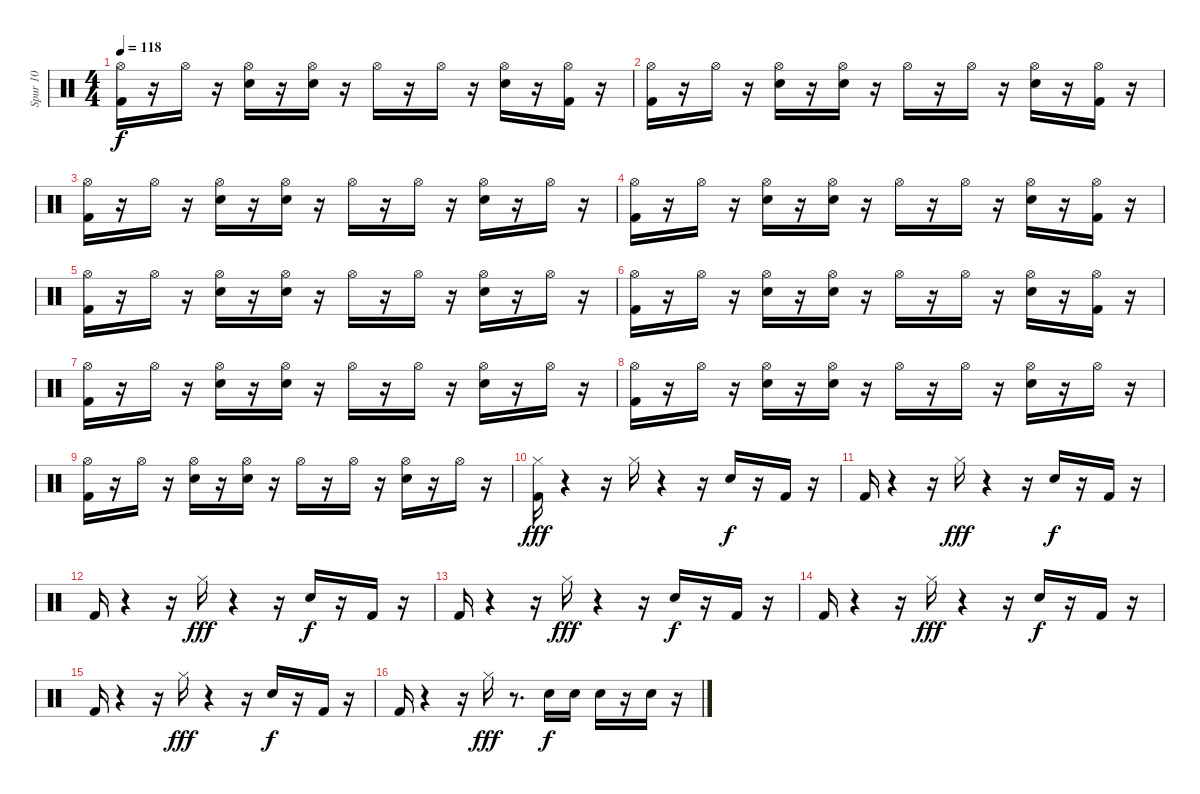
\track ("Spur 10" "Spur 10") {instrument percussion}
\staff {score}
\articulation defaults
\ts (4 4)
\tempo 118
\clef neutral
\ks c
("Kick (hit) 2" "Hi-Hat (open)").16{dy f} r.16 "Hi-Hat (open)".16 r.16 ("Snare (hit) 2" "Hi-Hat (open)").16 r.16 ("Snare (hit) 2" "Hi-Hat (open)").16 r.16 "Hi-Hat (open)".16 r.16 "Hi-Hat (open)".16 r.16 ("Snare (hit) 2" "Hi-Hat (open)").16 r.16 ("Hi-Hat (open)" "Kick (hit) 2").16 r.16 |
("Kick (hit) 2" "Hi-Hat (open)").16 r.16 "Hi-Hat (open)".16 r.16 ("Snare (hit) 2" "Hi-Hat (open)").16 r.16 ("Snare (hit) 2" "Hi-Hat (open)").16 r.16 "Hi-Hat (open)".16 r.16 "Hi-Hat (open)".16 r.16 ("Snare (hit) 2" "Hi-Hat (open)").16 r.16 ("Kick (hit) 2" "Hi-Hat (open)").16 r.16 |
("Kick (hit) 2" "Hi-Hat (open)").16 r.16 "Hi-Hat (open)".16 r.16 ("Snare (hit) 2" "Hi-Hat (open)").16 r.16 ("Snare (hit) 2" "Hi-Hat (open)").16 r.16 "Hi-Hat (open)".16 r.16 "Hi-Hat (open)".16 r.16 ("Snare (hit) 2" "Hi-Hat (open)").16 r.16 "Hi-Hat (open)".16 r.16 |
("Kick (hit) 2" "Hi-Hat (open)").16 r.16 "Hi-Hat (open)".16 r.16 ("Snare (hit) 2" "Hi-Hat (open)").16 r.16 ("Snare (hit) 2" "Hi-Hat (open)").16 r.16 "Hi-Hat (open)".16 r.16 "Hi-Hat (open)".16 r.16 ("Snare (hit) 2" "Hi-Hat (open)").16 r.16 ("Kick (hit) 2" "Hi-Hat (open)").16 r.16 |
("Kick (hit) 2" "Hi-Hat (open)").16 r.16 "Hi-Hat (open)".16 r.16 ("Snare (hit) 2" "Hi-Hat (open)").16 r.16 ("Snare (hit) 2" "Hi-Hat (open)").16 r.16 "Hi-Hat (open)".16 r.16 "Hi-Hat (open)".16 r.16 ("Snare (hit) 2" "Hi-Hat (open)").16 r.16 "Hi-Hat (open)".16 r.16 |
("Kick (hit) 2" "Hi-Hat (open)").16 r.16 "Hi-Hat (open)".16 r.16 ("Snare (hit) 2" "Hi-Hat (open)").16 r.16 ("Snare (hit) 2" "Hi-Hat (open)").16 r.16 "Hi-Hat (open)".16 r.16 "Hi-Hat (open)".16 r.16 ("Snare (hit) 2" "Hi-Hat (open)").16 r.16 ("Kick (hit) 2" "Hi-Hat (open)").16 r.16 |
("Kick (hit) 2" "Hi-Hat (open)").16 r.16 "Hi-Hat (open)".16 r.16 ("Snare (hit) 2" "Hi-Hat (open)").16 r.16 ("Snare (hit) 2" "Hi-Hat (open)").16 r.16 "Hi-Hat (open)".16 r.16 "Hi-Hat (open)".16 r.16 ("Snare (hit) 2" "Hi-Hat (open)").16 r.16 "Hi-Hat (open)".16 r.16 |
("Hi-Hat (open)" "Kick (hit) 2").16 r.16 "Hi-Hat (open)".16 r.16 ("Hi-Hat (open)" "Snare (hit) 2").16 r.16 ("Hi-Hat (open)" "Snare (hit) 2").16 r.16 "Hi-Hat (open)".16 r.16 "Hi-Hat (open)".16 r.16 ("Hi-Hat (open)" "Snare (hit) 2").16 r.16 "Hi-Hat (open)".16 r.16 |
("Hi-Hat (open)" "Kick (hit) 2").16 r.16 "Hi-Hat (open)".16 r.16 ("Hi-Hat (open)" "Snare (hit) 2").16 r.16 ("Hi-Hat (open)" "Snare (hit) 2").16 r.16 "Hi-Hat (open)".16 r.16 "Hi-Hat (open)".16 r.16 ("Hi-Hat (open)" "Snare (hit) 2").16 r.16 "Hi-Hat (open)".16 r.16 |
("Hi-Hat (closed)" "Kick (hit) 2").16{dy fff} r.4 r.16 "Hi-Hat (closed)".16 r.4 r.16 "Snare (hit) 2".16{dy f} r.16 "Kick (hit) 2".16 r.16 |
"Kick (hit) 2".16 r.4 r.16 "Hi-Hat (closed)".16{dy fff} r.4 r.16 "Snare (hit) 2".16{dy f} r.16 "Kick (hit) 2".16 r.16 |
"Kick (hit) 2".16 r.4 r.16 "Hi-Hat (closed)".16{dy fff} r.4 r.16 "Snare (hit) 2".16{dy f} r.16 "Kick (hit) 2".16 r.16 |
"Kick (hit) 2".16 r.4 r.16 "Hi-Hat (closed)".16{dy fff} r.4 r.16 "Snare (hit) 2".16{dy f} r.16 "Kick (hit) 2".16 r.16 |
"Kick (hit) 2".16 r.4 r.16 "Hi-Hat (closed)".16{dy fff} r.4 r.16 "Snare (hit) 2".16{dy f} r.16 "Kick (hit) 2".16 r.16 |
"Kick (hit) 2".16{volume 12} r.4 r.16 "Hi-Hat (closed)".16{dy fff volume 11} r.4 r.16 "Snare (hit) 2".16{dy f volume 9} r.16 "Kick (hit) 2".16{volume 9} r.16 |
"Kick (hit) 2".16{volume 8} r.4 r.16 "Hi-Hat (closed)".16{dy fff volume 7} r.8{d} "Snare (hit) 2".16{dy f volume 6} "Snare (hit) 2".16{volume 6} "Snare (hit) 2".16{volume 5} r.16 "Snare (hit) 2".16{volume 5} r.16
